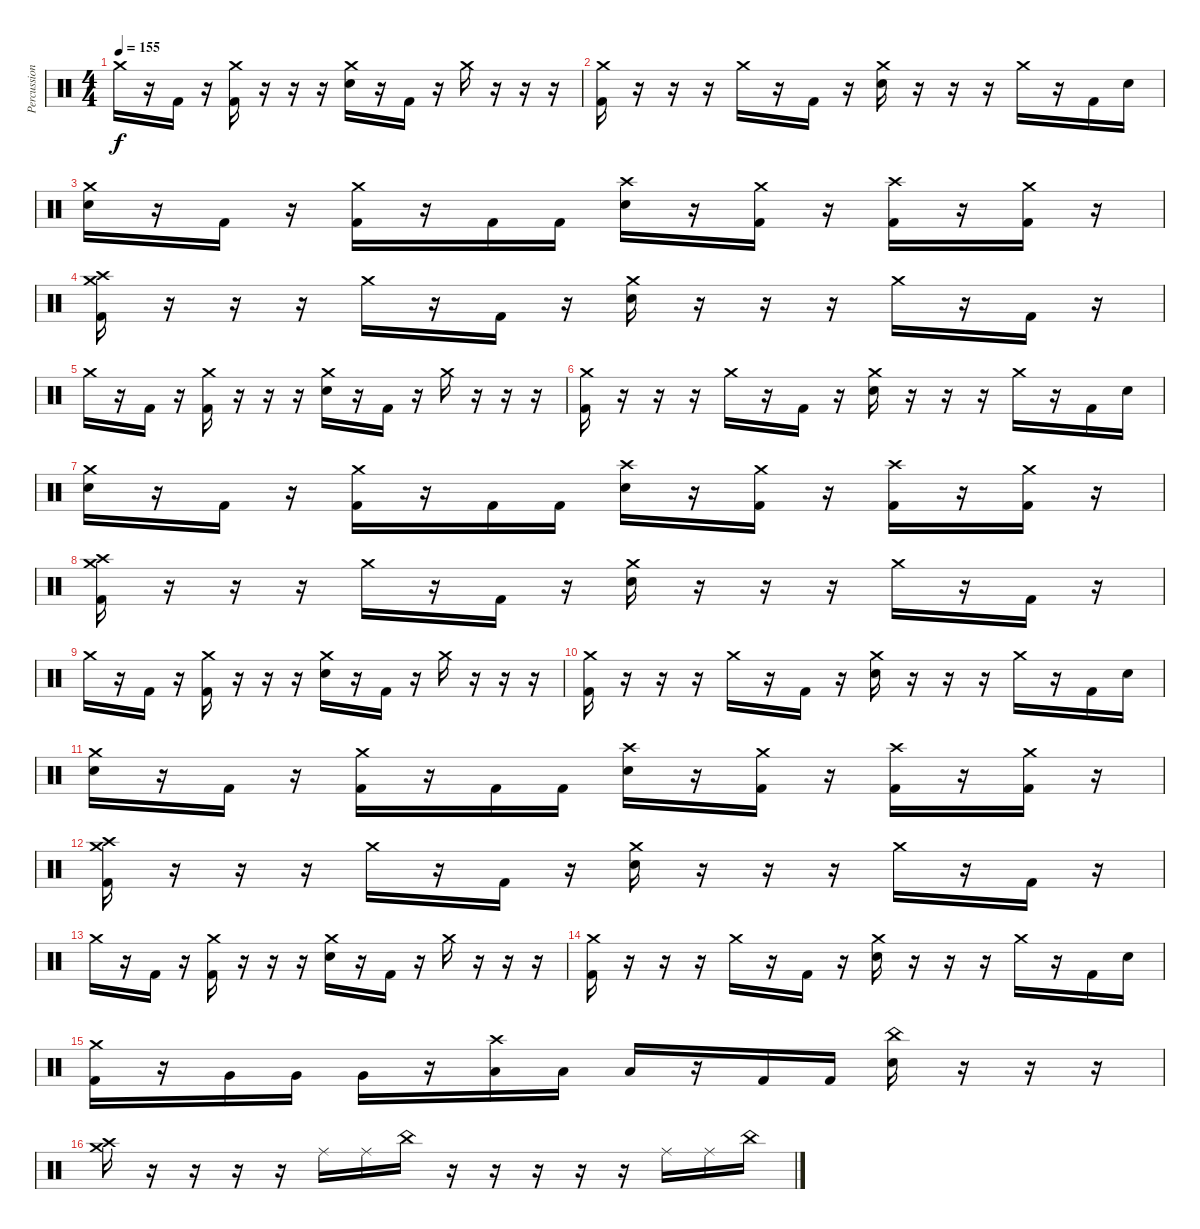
\track ("Percussion" "Percussion") {instrument percussion}
\staff {score}
\articulation defaults
\ts (4 4)
\tempo 155
\clef neutral
\ks c "Crash medium (hit)".16{dy f}
r.16 "Kick (hit) 2".16 r.16 ("Crash medium (hit)" "Kick (hit) 2").16 r.16 r.16 r.16 ("Crash medium (hit)" "Snare (hit) 2").16 r.16 "Kick (hit) 2".16 r.16 "Crash medium (hit)".16 r.16 r.16 r.16 |
("Crash medium (hit)" "Kick (hit) 2").16 r.16 r.16 r.16 "Crash medium (hit)".16 r.16 "Kick (hit) 2".16 r.16 ("Crash medium (hit)" "Snare (hit) 2").16 r.16 r.16 r.16 "Crash medium (hit)".16 r.16 "Kick (hit) 2".16 "Snare (hit) 2".16 |
("Crash medium (hit)" "Snare (hit) 2").16 r.16 "Kick (hit) 2".16 r.16 ("Crash medium (hit)" "Kick (hit) 2").16 r.16 "Kick (hit) 2".16 "Kick (hit) 2".16 ("Crash high (hit)" "Snare (hit) 2").16 r.16 ("Crash medium (hit)" "Kick (hit) 2").16 r.16 ("Crash high (hit)" "Kick (hit) 2").16 r.16 ("Crash medium (hit)" "Kick (hit) 2").16 r.16 |
("Crash high (hit)" "Crash medium (hit)" "Kick (hit) 2").16 r.16 r.16 r.16 "Crash medium (hit)".16 r.16 "Kick (hit) 2".16 r.16 ("Crash medium (hit)" "Snare (hit) 2").16 r.16 r.16 r.16 "Crash medium (hit)".16 r.16 "Kick (hit) 2".16 r.16 |
"Crash medium (hit)".16 r.16 "Kick (hit) 2".16 r.16 ("Crash medium (hit)" "Kick (hit) 2").16 r.16 r.16 r.16 ("Crash medium (hit)" "Snare (hit) 2").16 r.16 "Kick (hit) 2".16 r.16 "Crash medium (hit)".16 r.16 r.16 r.16 |
("Crash medium (hit)" "Kick (hit) 2").16 r.16 r.16 r.16 "Crash medium (hit)".16 r.16 "Kick (hit) 2".16 r.16 ("Crash medium (hit)" "Snare (hit) 2").16 r.16 r.16 r.16 "Crash medium (hit)".16 r.16 "Kick (hit) 2".16 "Snare (hit) 2".16 |
("Crash medium (hit)" "Snare (hit) 2").16 r.16 "Kick (hit) 2".16 r.16 ("Crash medium (hit)" "Kick (hit) 2").16 r.16 "Kick (hit) 2".16 "Kick (hit) 2".16 ("Crash high (hit)" "Snare (hit) 2").16 r.16 ("Crash medium (hit)" "Kick (hit) 2").16 r.16 ("Crash high (hit)" "Kick (hit) 2").16 r.16 ("Crash medium (hit)" "Kick (hit) 2").16 r.16 |
("Crash high (hit)" "Crash medium (hit)" "Kick (hit) 2").16 r.16 r.16 r.16 "Crash medium (hit)".16 r.16 "Kick (hit) 2".16 r.16 ("Crash medium (hit)" "Snare (hit) 2").16 r.16 r.16 r.16 "Crash medium (hit)".16 r.16 "Kick (hit) 2".16 r.16 |
"Crash medium (hit)".16 r.16 "Kick (hit) 2".16 r.16 ("Crash medium (hit)" "Kick (hit) 2").16 r.16 r.16 r.16 ("Crash medium (hit)" "Snare (hit) 2").16 r.16 "Kick (hit) 2".16 r.16 "Crash medium (hit)".16 r.16 r.16 r.16 |
("Crash medium (hit)" "Kick (hit) 2").16 r.16 r.16 r.16 "Crash medium (hit)".16 r.16 "Kick (hit) 2".16 r.16 ("Crash medium (hit)" "Snare (hit) 2").16 r.16 r.16 r.16 "Crash medium (hit)".16 r.16 "Kick (hit) 2".16 "Snare (hit) 2".16 |
("Crash medium (hit)" "Snare (hit) 2").16 r.16 "Kick (hit) 2".16 r.16 ("Crash medium (hit)" "Kick (hit) 2").16 r.16 "Kick (hit) 2".16 "Kick (hit) 2".16 ("Crash high (hit)" "Snare (hit) 2").16 r.16 ("Crash medium (hit)" "Kick (hit) 2").16 r.16 ("Crash high (hit)" "Kick (hit) 2").16 r.16 ("Crash medium (hit)" "Kick (hit) 2").16 r.16 |
("Crash high (hit)" "Crash medium (hit)" "Kick (hit) 2").16 r.16 r.16 r.16 "Crash medium (hit)".16 r.16 "Kick (hit) 2".16 r.16 ("Crash medium (hit)" "Snare (hit) 2").16 r.16 r.16 r.16 "Crash medium (hit)".16 r.16 "Kick (hit) 2".16 r.16 |
"Crash medium (hit)".16 r.16 "Kick (hit) 2".16 r.16 ("Crash medium (hit)" "Kick (hit) 2").16 r.16 r.16 r.16 ("Crash medium (hit)" "Snare (hit) 2").16 r.16 "Kick (hit) 2".16 r.16 "Crash medium (hit)".16 r.16 r.16 r.16 |
("Crash medium (hit)" "Kick (hit) 2").16 r.16 r.16 r.16 "Crash medium (hit)".16 r.16 "Kick (hit) 2".16 r.16 ("Crash medium (hit)" "Snare (hit) 2").16 r.16 r.16 r.16 "Crash medium (hit)".16 r.16 "Kick (hit) 2".16 "Snare (hit) 2".16 |
("Crash medium (hit)" "Kick (hit) 2").16 r.16 "Very Low Tom (hit)".16 "Very Low Tom (hit)".16 "Very Low Tom (hit)".16 r.16 ("Crash high (hit)" "Low Floor Tom (hit)").16 "Low Floor Tom (hit)".16 "Low Floor Tom (hit)".16 r.16 "Kick (hit) 2".16 "Kick (hit) 2".16 ("China (hit)" "Snare (hit) 2").16 r.16 r.16 r.16 |
("Crash high (hit)" "Crash medium (hit)").16 r.16 r.16 r.16 r.16 "Ride (middle)".16 "Ride (middle)".16 "China (hit)".16 r.16 r.16 r.16 r.16 r.16 "Ride (middle)".16 "Ride (middle)".16 "China (hit)".16
